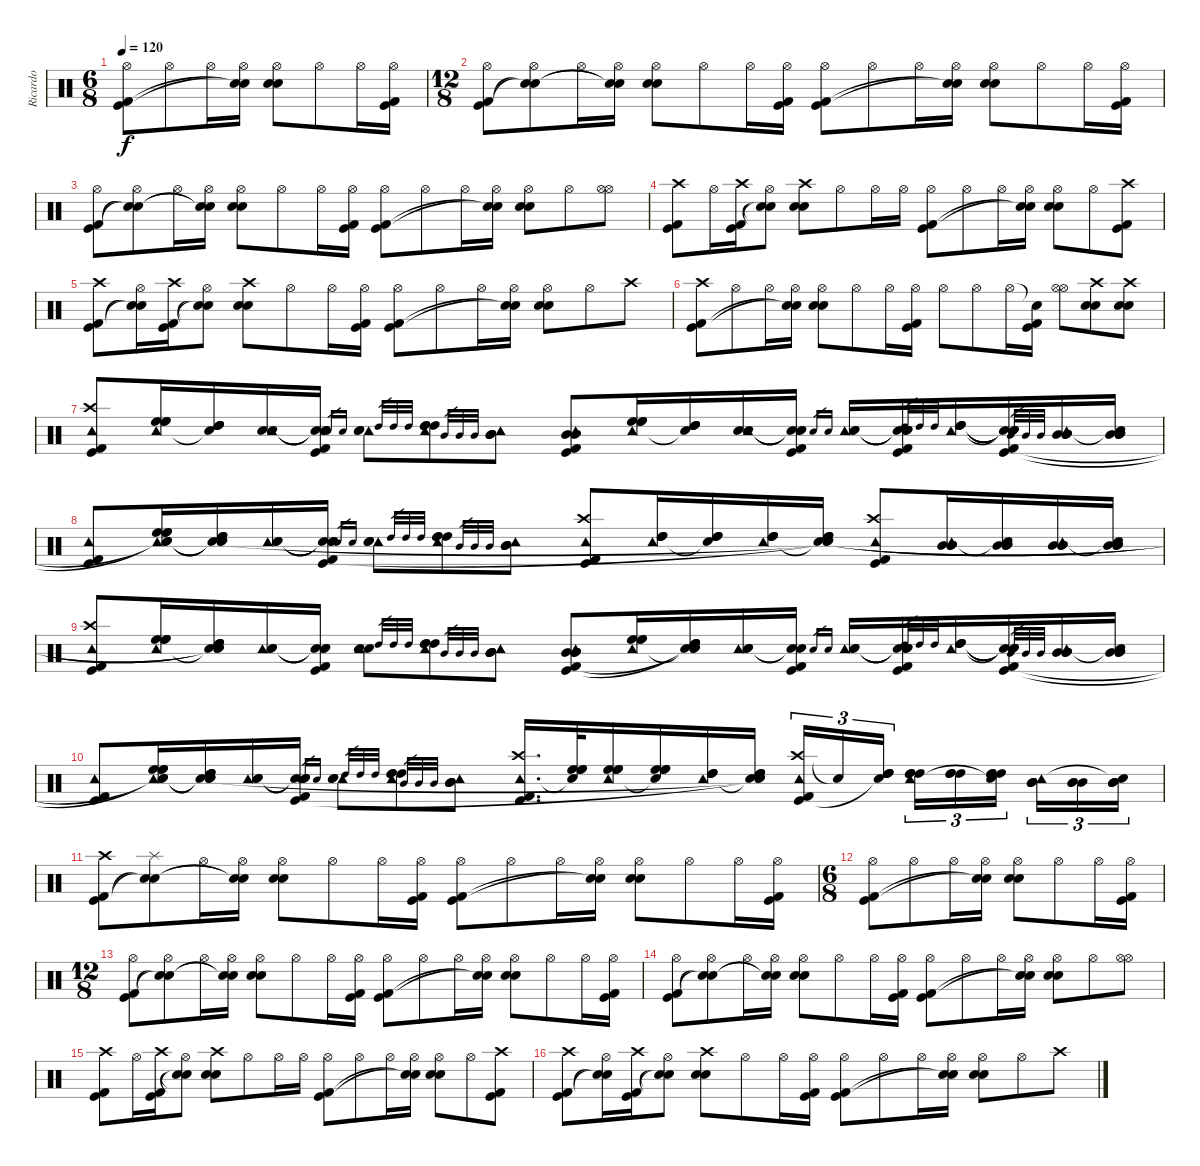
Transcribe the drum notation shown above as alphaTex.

\track ("Ricardo" "Ricardo") {instrument percussion}
\staff {score}
\articulation defaults
\ts (6 8)
\tempo 120
\clef neutral
\ks c
("Hi-Hat (open)" "Kick (hit)" "Kick (hit) 2").8{dy f} "Hi-Hat (open)".8 "Hi-Hat (open)".16 ("Hi-Hat (open)" "Snare (hit)"{t} "Snare (hit)"{t}).16 ("Hi-Hat (open)" "Electric Snare (hit)" "Snare (hit) 2").8 "Hi-Hat (open)".8 "Hi-Hat (open)".16 ("Hi-Hat (open)" "Kick (hit)" "Kick (hit) 2").16 |
\ts (12 8)
("Hi-Hat (open)" "Kick (hit) 2" "Kick (hit)").8 ("Hi-Hat (open)" "Snare (hit)"{t} "Snare (hit)"{t}).8 "Hi-Hat (open)".16 ("Hi-Hat (open)" "Snare (hit)"{t} "Snare (hit)"{t}).16 ("Hi-Hat (open)" "Electric Snare (hit)" "Snare (hit) 2").8 "Hi-Hat (open)".8 "Hi-Hat (open)".16 ("Hi-Hat (open)" "Kick (hit)" "Kick (hit) 2").16 ("Hi-Hat (open)" "Kick (hit) 2" "Kick (hit)").8 "Hi-Hat (open)".8 "Hi-Hat (open)".16 ("Hi-Hat (open)" "Snare (hit)"{t} "Snare (hit)"{t}).16 ("Hi-Hat (open)" "Electric Snare (hit)" "Snare (hit) 2").8 "Hi-Hat (open)".8 "Hi-Hat (open)".16 ("Hi-Hat (open)" "Kick (hit)" "Kick (hit) 2").16 |
("Hi-Hat (open)" "Kick (hit) 2" "Kick (hit)").8 ("Hi-Hat (open)" "Snare (hit)"{t} "Snare (hit)"{t}).8 "Hi-Hat (open)".16 ("Hi-Hat (open)" "Snare (hit)"{t} "Snare (hit)"{t}).16 ("Hi-Hat (open)" "Electric Snare (hit)" "Snare (hit) 2").8 "Hi-Hat (open)".8 "Hi-Hat (open)".16 ("Hi-Hat (open)" "Kick (hit)" "Kick (hit) 2").16 ("Hi-Hat (open)" "Kick (hit) 2" "Kick (hit)").8 "Hi-Hat (open)".8 "Hi-Hat (open)".16 ("Hi-Hat (open)" "Snare (hit)"{t} "Snare (hit)"{t}).16 ("Hi-Hat (open)" "Electric Snare (hit)" "Snare (hit) 2").8 "Hi-Hat (open)".8 ("Hi-Hat (open)" "Hi-Hat (open)").8 |
("Crash high (hit)" "Kick (hit)" "Kick (hit) 2").8 "Hi-Hat (open)".16 ("Crash high (hit)" "Kick (hit)" "Kick (hit) 2").16 ("Hi-Hat (open)" "Snare (hit)"{t} "Snare (hit)"{t}).8 ("Crash high (hit)" "Electric Snare (hit)" "Snare (hit) 2").8 "Hi-Hat (open)".8 "Hi-Hat (open)".16 "Hi-Hat (open)".16 ("Hi-Hat (open)" "Kick (hit)" "Kick (hit) 2").8 "Hi-Hat (open)".8 "Hi-Hat (open)".16 ("Hi-Hat (open)" "Snare (hit)"{t} "Snare (hit)"{t}).16 ("Hi-Hat (open)" "Electric Snare (hit)" "Snare (hit) 2").8 "Hi-Hat (open)".8 ("Crash high (hit)" "Kick (hit)" "Kick (hit) 2").8 |
("Crash high (hit)" "Kick (hit)" "Kick (hit) 2").8 ("Hi-Hat (open)" "Snare (hit)"{t} "Snare (hit)"{t}).16 ("Crash high (hit)" "Kick (hit)" "Kick (hit) 2").16 ("Hi-Hat (open)" "Snare (hit)"{t} "Snare (hit)"{t}).8 ("Crash high (hit)" "Electric Snare (hit)" "Snare (hit) 2").8 "Hi-Hat (open)".8 "Hi-Hat (open)".16 ("Hi-Hat (open)" "Kick (hit)" "Kick (hit) 2").16 ("Hi-Hat (open)" "Kick (hit)" "Kick (hit) 2").8 "Hi-Hat (open)".8 "Hi-Hat (open)".16 ("Hi-Hat (open)" "Snare (hit)"{t} "Snare (hit)"{t}).16 ("Hi-Hat (open)" "Electric Snare (hit)" "Snare (hit) 2").8 "Hi-Hat (open)".8 "Crash high (hit)".8 |
("Crash high (hit)" "Kick (hit)" "Kick (hit) 2").8 "Hi-Hat (open)".8 "Hi-Hat (open)".16 ("Hi-Hat (open)" "Snare (hit)"{t} "Snare (hit)"{t}).16 ("Hi-Hat (open)" "Electric Snare (hit)" "Snare (hit) 2").8 "Hi-Hat (open)".8 "Hi-Hat (open)".16 ("Hi-Hat (open)" "Kick (hit) 2" "Kick (hit)").16 "Hi-Hat (open)".8 "Hi-Hat (open)".8 "Hi-Hat (open)".16 ("Snare (hit)"{t} "Kick (hit)" "Kick (hit) 2").16 ("Hi-Hat (open)" "Hi-Hat (open)").8 ("Crash high (hit)" "Electric Snare (hit)" "Snare (hit) 2").8 ("Crash high (hit)" "Electric Snare (hit)" "Snare (hit) 2").8 |
("Crash high (hit)" "Tambourine (hit)" "Kick (hit) 2" "Kick (hit)").8 ("High Floor Tom (hit)" "High Floor Tom (hit)" "High Floor Tom (hit)" "Tambourine (hit)").16 ("High Tom (hit)" "High Tom (hit)" "High Tom (hit)" "Snare (hit)"{t}).16 ("Electric Snare (hit)" "Snare (hit) 2" "Tambourine (hit)").16 ("Snare (hit)"{t} "Snare (hit)"{t} "Snare (hit)"{t} "Kick (hit) 2" "Kick (hit)").16 "Electric Snare (hit)".16{gr} "Snare (hit) 2".16{gr} ("Tambourine (hit)" "Electric Snare (hit)" "Snare (hit) 2").8 "High Tom (hit)".32{gr} "High Tom (hit)".32{gr} "High Tom (hit)".32{gr} ("Tambourine (hit)" "High Tom (hit)" "High Tom (hit)" "High Tom (hit)").8 "Mid Tom (hit)".32{gr} "Mid Tom (hit)".32{gr} "Mid Tom (hit)".32{gr} ("Tambourine (hit)" "Mid Tom (hit)" "Mid Tom (hit)" "Mid Tom (hit)").8 ("Tambourine (hit)" "Mid Tom (hit)" "Mid Tom (hit)" "Kick (hit) 2" "Kick (hit)").8 ("High Floor Tom (hit)" "High Floor Tom (hit)" "High Floor Tom (hit)" "Tambourine (hit)").16 ("High Tom (hit)" "High Tom (hit)" "High Tom (hit)" "Snare (hit)"{t}).16 ("Electric Snare (hit)" "Snare (hit) 2" "Tambourine (hit)").16 ("Snare (hit)"{t} "Snare (hit)"{t} "Snare (hit)"{t} "Kick (hit) 2" "Kick (hit)").16 "Electric Snare (hit)".16{gr} "Snare (hit) 2".16{gr} ("Tambourine (hit)" "Electric Snare (hit)" "Snare (hit) 2").16 ("Snare (hit)"{t} "Snare (hit)"{t} "Snare (hit)"{t} "Kick (hit) 2" "Kick (hit)").16 "High Tom (hit)".32{gr} "High Tom (hit)".32{gr} "High Tom (hit)".32{gr} ("Tambourine (hit)" "High Tom (hit)" "High Tom (hit)" "High Tom (hit)").16 ("Snare (hit)"{t} "Snare (hit)"{t} "Snare (hit)"{t} "Snare (hit)"{t} "Kick (hit) 2" "Kick (hit)").16 "Mid Tom (hit)".32{gr} "Mid Tom (hit)".32{gr} "Mid Tom (hit)".32{gr} ("Tambourine (hit)" "Mid Tom (hit)" "Mid Tom (hit)" "Mid Tom (hit)").16 ("Snare (hit)"{t} "Mid Tom (hit)" "Mid Tom (hit)" "Mid Tom (hit)").16 |
("Tambourine (hit)" "Kick (hit) 2" "Kick (hit)").8 ("Tambourine (hit)" "High Floor Tom (hit)" "High Floor Tom (hit)" "High Floor Tom (hit)" "Snare (hit)"{t} "Snare (hit)"{t}).16 ("Snare (hit)"{t} "High Tom (hit)" "High Tom (hit)" "High Tom (hit)" "Snare (hit)"{t} "Snare (hit)"{t}).16 ("Tambourine (hit)" "Electric Snare (hit)" "Snare (hit) 2").16 ("Snare (hit)"{t} "Snare (hit)"{t} "Snare (hit)"{t} "Kick (hit)" "Kick (hit) 2").16 "Electric Snare (hit)".16{gr} "Snare (hit) 2".16{gr} ("Tambourine (hit)" "Electric Snare (hit)" "Snare (hit) 2").8 "High Tom (hit)".32{gr} "High Tom (hit)".32{gr} "High Tom (hit)".32{gr} ("Tambourine (hit)" "High Tom (hit)" "High Tom (hit)" "High Tom (hit)").8 "Mid Tom (hit)".32{gr} "Mid Tom (hit)".32{gr} "Mid Tom (hit)".32{gr} ("Tambourine (hit)" "Mid Tom (hit)" "Mid Tom (hit)" "Mid Tom (hit)").8 ("Crash high (hit)" "Tambourine (hit)" "Kick (hit)" "Kick (hit) 2").8 ("Tambourine (hit)" "High Tom (hit)" "High Tom (hit)" "High Tom (hit)").16 ("Snare (hit)"{t} "High Tom (hit)" "High Tom (hit)" "High Tom (hit)").16 ("Tambourine (hit)" "High Tom (hit)" "High Tom (hit)" "High Tom (hit)").16 ("Snare (hit)"{t} "High Tom (hit)" "High Tom (hit)" "High Tom (hit)" "Snare (hit)"{t} "Snare (hit)"{t}).16 ("Crash high (hit)" "Tambourine (hit)" "Kick (hit)" "Kick (hit) 2").8 ("Tambourine (hit)" "Mid Tom (hit)" "Mid Tom (hit)" "Mid Tom (hit)").16 ("Snare (hit)"{t} "Mid Tom (hit)" "Mid Tom (hit)" "Mid Tom (hit)").16 ("Tambourine (hit)" "Mid Tom (hit)" "Mid Tom (hit)" "Mid Tom (hit)").16 ("Snare (hit)"{t} "Mid Tom (hit)" "Mid Tom (hit)" "Mid Tom (hit)").16 |
("Crash high (hit)" "Tambourine (hit)" "Kick (hit)" "Kick (hit) 2").8 ("Tambourine (hit)" "High Floor Tom (hit)" "High Floor Tom (hit)" "High Floor Tom (hit)").16 ("Snare (hit)"{t} "High Tom (hit)" "High Tom (hit)" "High Tom (hit)" "Snare (hit)"{t} "Snare (hit)"{t}).16 ("Tambourine (hit)" "Electric Snare (hit)" "Snare (hit) 2").16 ("Snare (hit)"{t} "Snare (hit)"{t} "Snare (hit)"{t} "Kick (hit) 2" "Kick (hit)").16 ("Electric Snare (hit)" "Snare (hit) 2" "Tambourine (hit)").8 "High Tom (hit)".32{gr} "High Tom (hit)".32{gr} "High Tom (hit)".32{gr} ("Tambourine (hit)" "High Tom (hit)" "High Tom (hit)" "High Tom (hit)").8 "Mid Tom (hit)".32{gr} "Mid Tom (hit)".32{gr} "Mid Tom (hit)".32{gr} ("Mid Tom (hit)" "Mid Tom (hit)" "Mid Tom (hit)" "Tambourine (hit)").8 ("Tambourine (hit)" "Mid Tom (hit)" "Mid Tom (hit)" "Mid Tom (hit)" "Kick (hit)" "Kick (hit) 2").8 ("Tambourine (hit)" "High Floor Tom (hit)" "High Floor Tom (hit)" "High Floor Tom (hit)").16 ("Snare (hit)"{t} "High Tom (hit)" "High Tom (hit)" "High Tom (hit)" "Snare (hit)"{t} "Snare (hit)"{t}).16 ("Tambourine (hit)" "Electric Snare (hit)" "Snare (hit) 2").16 ("Snare (hit)"{t} "Snare (hit)"{t} "Kick (hit) 2" "Kick (hit)").16 "Electric Snare (hit)".16{gr} "Snare (hit) 2".16{gr} ("Tambourine (hit)" "Electric Snare (hit)" "Snare (hit) 2").16 ("Snare (hit)"{t} "Snare (hit)"{t} "Snare (hit)"{t} "Kick (hit)" "Kick (hit) 2").16 "High Tom (hit)".32{gr} "High Tom (hit)".32{gr} "High Tom (hit)".32{gr} ("Tambourine (hit)" "High Tom (hit)" "High Tom (hit)" "High Tom (hit)").16 ("Snare (hit)"{t} "Snare (hit)"{t} "Snare (hit)"{t} "Snare (hit)"{t} "Kick (hit) 2" "Kick (hit)").16 "Mid Tom (hit)".32{gr} "Mid Tom (hit)".32{gr} "Mid Tom (hit)".32{gr} ("Tambourine (hit)" "Mid Tom (hit)" "Mid Tom (hit)" "Mid Tom (hit)").16 ("Snare (hit)"{t} "Mid Tom (hit)" "Mid Tom (hit)" "Mid Tom (hit)").16 |
("Tambourine (hit)" "Kick (hit)" "Kick (hit) 2").8 ("Tambourine (hit)" "High Floor Tom (hit)" "High Floor Tom (hit)" "High Floor Tom (hit)" "Snare (hit)"{t} "Snare (hit)"{t}).16 ("Snare (hit)"{t} "High Tom (hit)" "High Tom (hit)" "High Tom (hit)" "Snare (hit)"{t} "Snare (hit)"{t}).16 ("Tambourine (hit)" "Electric Snare (hit)" "Snare (hit) 2").16 ("Snare (hit)"{t} "Snare (hit)"{t} "Snare (hit)"{t} "Kick (hit) 2" "Kick (hit)").16 "Electric Snare (hit)".16{gr} "Snare (hit) 2".16{gr} ("Tambourine (hit)" "Electric Snare (hit)" "Snare (hit) 2").8 "High Tom (hit)".32{gr} "High Tom (hit)".32{gr} "High Tom (hit)".32{gr} ("Tambourine (hit)" "High Tom (hit)" "High Tom (hit)" "High Tom (hit)").8 "Mid Tom (hit)".32{gr} "Mid Tom (hit)".32{gr} "Mid Tom (hit)".32{gr} ("Tambourine (hit)" "Mid Tom (hit)" "Mid Tom (hit)" "Mid Tom (hit)").8 ("Tambourine (hit)" "Crash high (hit)" "Kick (hit) 2" "Kick (hit)").16{d} ("Snare (hit)"{t} "High Floor Tom (hit)" "High Floor Tom (hit)" "High Floor Tom (hit)").32 ("Tambourine (hit)" "High Floor Tom (hit)" "High Floor Tom (hit)" "High Floor Tom (hit)").16 ("Snare (hit)"{t} "High Floor Tom (hit)" "High Floor Tom (hit)" "High Floor Tom (hit)").16 ("Tambourine (hit)" "High Tom (hit)" "High Tom (hit)" "High Tom (hit)").16 ("Snare (hit)"{t} "High Tom (hit)" "High Tom (hit)" "High Tom (hit)" "Snare (hit)"{t} "Snare (hit)"{t}).16 ("Crash high (hit)" "Tambourine (hit)" "Kick (hit) 2" "Kick (hit)").16{tu (3 2)} "Snare (hit)"{t}.16{tu (3 2)} ("High Tom (hit)" "High Tom (hit)" "High Tom (hit)" "Snare (hit)"{t}).16{tu (3 2)} ("High Tom (hit)" "High Tom (hit)" "High Tom (hit)" "Tambourine (hit)").16{tu (3 2)} ("High Tom (hit)" "High Tom (hit)" "High Tom (hit)").16{tu (3 2)} ("High Tom (hit)" "High Tom (hit)" "High Tom (hit)" "Snare (hit)"{t}).16{tu (3 2)} ("Mid Tom (hit)" "Mid Tom (hit)" "Mid Tom (hit)" "Tambourine (hit)").16{tu (3 2)} ("Mid Tom (hit)" "Mid Tom (hit)" "Mid Tom (hit)").16{tu (3 2)} ("Mid Tom (hit)" "Mid Tom (hit)" "Mid Tom (hit)" "Snare (hit)"{t}).16{tu (3 2)} |
("Crash high (hit)" "Kick (hit) 2" "Kick (hit)").8 ("Splash (hit)" "Snare (hit)"{t} "Snare (hit)"{t}).8 "Hi-Hat (open)".16 ("Hi-Hat (open)" "Snare (hit)"{t} "Snare (hit)"{t}).16 ("Hi-Hat (open)" "Electric Snare (hit)" "Snare (hit) 2").8 "Hi-Hat (open)".8 "Hi-Hat (open)".16 ("Hi-Hat (open)" "Kick (hit)" "Kick (hit) 2").16 ("Hi-Hat (open)" "Kick (hit) 2" "Kick (hit)").8 "Hi-Hat (open)".8 "Hi-Hat (open)".16 ("Hi-Hat (open)" "Snare (hit)"{t} "Snare (hit)"{t}).16 ("Hi-Hat (open)" "Electric Snare (hit)" "Snare (hit) 2").8 "Hi-Hat (open)".8 "Hi-Hat (open)".16 ("Hi-Hat (open)" "Kick (hit)" "Kick (hit) 2").16 |
\ts (6 8)
("Hi-Hat (open)" "Kick (hit)" "Kick (hit) 2").8 "Hi-Hat (open)".8 "Hi-Hat (open)".16 ("Hi-Hat (open)" "Snare (hit)"{t} "Snare (hit)"{t}).16 ("Hi-Hat (open)" "Electric Snare (hit)" "Snare (hit) 2").8 "Hi-Hat (open)".8 "Hi-Hat (open)".16 ("Hi-Hat (open)" "Kick (hit)" "Kick (hit) 2").16 |
\ts (12 8)
("Hi-Hat (open)" "Kick (hit) 2" "Kick (hit)").8 ("Hi-Hat (open)" "Snare (hit)"{t} "Snare (hit)"{t}).8 "Hi-Hat (open)".16 ("Hi-Hat (open)" "Snare (hit)"{t} "Snare (hit)"{t}).16 ("Hi-Hat (open)" "Electric Snare (hit)" "Snare (hit) 2").8 "Hi-Hat (open)".8 "Hi-Hat (open)".16 ("Hi-Hat (open)" "Kick (hit)" "Kick (hit) 2").16 ("Hi-Hat (open)" "Kick (hit) 2" "Kick (hit)").8 "Hi-Hat (open)".8 "Hi-Hat (open)".16 ("Hi-Hat (open)" "Snare (hit)"{t} "Snare (hit)"{t}).16 ("Hi-Hat (open)" "Electric Snare (hit)" "Snare (hit) 2").8 "Hi-Hat (open)".8 "Hi-Hat (open)".16 ("Hi-Hat (open)" "Kick (hit)" "Kick (hit) 2").16 |
("Hi-Hat (open)" "Kick (hit) 2" "Kick (hit)").8 ("Hi-Hat (open)" "Snare (hit)"{t} "Snare (hit)"{t}).8 "Hi-Hat (open)".16 ("Hi-Hat (open)" "Snare (hit)"{t} "Snare (hit)"{t}).16 ("Hi-Hat (open)" "Electric Snare (hit)" "Snare (hit) 2").8 "Hi-Hat (open)".8 "Hi-Hat (open)".16 ("Hi-Hat (open)" "Kick (hit)" "Kick (hit) 2").16 ("Hi-Hat (open)" "Kick (hit) 2" "Kick (hit)").8 "Hi-Hat (open)".8 "Hi-Hat (open)".16 ("Hi-Hat (open)" "Snare (hit)"{t} "Snare (hit)"{t}).16 ("Hi-Hat (open)" "Electric Snare (hit)" "Snare (hit) 2").8 "Hi-Hat (open)".8 ("Hi-Hat (open)" "Hi-Hat (open)").8 |
("Crash high (hit)" "Kick (hit)" "Kick (hit) 2").8 "Hi-Hat (open)".16 ("Crash high (hit)" "Kick (hit)" "Kick (hit) 2").16 ("Hi-Hat (open)" "Snare (hit)"{t} "Snare (hit)"{t}).8 ("Crash high (hit)" "Electric Snare (hit)" "Snare (hit) 2").8 "Hi-Hat (open)".8 "Hi-Hat (open)".16 "Hi-Hat (open)".16 ("Hi-Hat (open)" "Kick (hit)" "Kick (hit) 2").8 "Hi-Hat (open)".8 "Hi-Hat (open)".16 ("Hi-Hat (open)" "Snare (hit)"{t} "Snare (hit)"{t}).16 ("Hi-Hat (open)" "Electric Snare (hit)" "Snare (hit) 2").8 "Hi-Hat (open)".8 ("Crash high (hit)" "Kick (hit)" "Kick (hit) 2").8 |
("Crash high (hit)" "Kick (hit)" "Kick (hit) 2").8 ("Hi-Hat (open)" "Snare (hit)"{t} "Snare (hit)"{t}).16 ("Crash high (hit)" "Kick (hit)" "Kick (hit) 2").16 ("Hi-Hat (open)" "Snare (hit)"{t} "Snare (hit)"{t}).8 ("Crash high (hit)" "Electric Snare (hit)" "Snare (hit) 2").8 "Hi-Hat (open)".8 "Hi-Hat (open)".16 ("Hi-Hat (open)" "Kick (hit)" "Kick (hit) 2").16 ("Hi-Hat (open)" "Kick (hit)" "Kick (hit) 2").8 "Hi-Hat (open)".8 "Hi-Hat (open)".16 ("Hi-Hat (open)" "Snare (hit)"{t} "Snare (hit)"{t}).16 ("Hi-Hat (open)" "Electric Snare (hit)" "Snare (hit) 2").8 "Hi-Hat (open)".8 "Crash high (hit)".8
